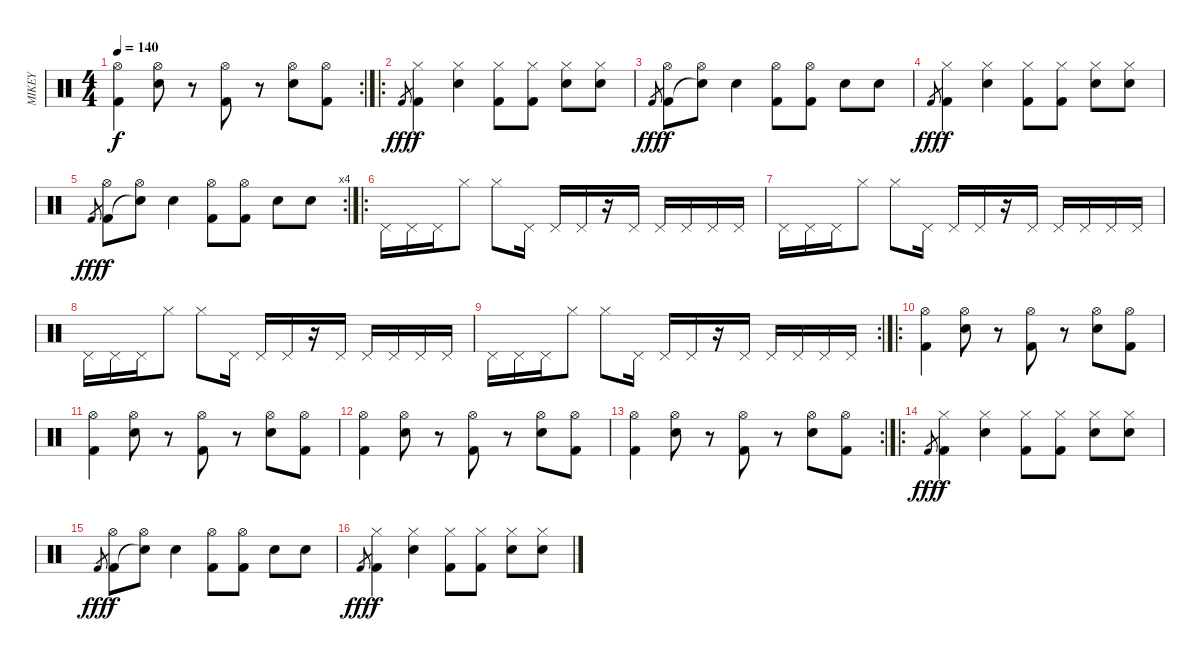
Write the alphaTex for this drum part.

\track ("MIKEY" "MIKEY") {instrument percussion}
\staff {score}
\articulation defaults
\rc 2
\ts (4 4)
\tempo 140
\clef neutral
\ks c
("Hi-Hat (open)" "Kick (hit) 2").4{dy f} ("Hi-Hat (open)" "Electric Snare (hit)").8 r.8 ("Hi-Hat (open)" "Kick (hit) 2").8 r.8 ("Hi-Hat (open)" "Electric Snare (hit)").8 ("Hi-Hat (open)" "Kick (hit) 2").8 |
\ro "Kick (hit) 2".8{gr dy fff}
("Hi-Hat (closed)" "Kick (hit) 2").4{dy f} ("Hi-Hat (closed)" "Electric Snare (hit)").4 ("Hi-Hat (closed)" "Kick (hit) 2").8 ("Hi-Hat (closed)" "Kick (hit) 2").8 ("Hi-Hat (closed)" "Electric Snare (hit)").8 ("Hi-Hat (closed)" "Electric Snare (hit)").8 |
"Kick (hit) 2".8{gr dy fff} ("Hi-Hat (open)" "Kick (hit) 2").8{dy f} ("Hi-Hat (open)" "Snare (hit)"{t}).8 "Electric Snare (hit)".4 ("Hi-Hat (open)" "Kick (hit) 2").8 ("Hi-Hat (open)" "Kick (hit) 2").8 "Electric Snare (hit)".8 "Electric Snare (hit)".8 |
"Kick (hit) 2".8{gr dy fff} ("Hi-Hat (closed)" "Kick (hit) 2").4{dy f} ("Hi-Hat (closed)" "Electric Snare (hit)").4 ("Hi-Hat (closed)" "Kick (hit) 2").8 ("Hi-Hat (closed)" "Kick (hit) 2").8 ("Hi-Hat (closed)" "Electric Snare (hit)").8 ("Hi-Hat (closed)" "Electric Snare (hit)").8 |
\rc 4 "Kick (hit) 2".8{gr dy fff}
("Hi-Hat (open)" "Kick (hit) 2").8{dy f} ("Hi-Hat (open)" "Snare (hit)"{t}).8 "Electric Snare (hit)".4 ("Hi-Hat (open)" "Kick (hit) 2").8 ("Hi-Hat (open)" "Kick (hit) 2").8 "Electric Snare (hit)".8 "Electric Snare (hit)".8 |
\ro "Pedal Hi-Hat (hit)".16 "Pedal Hi-Hat (hit)".16 "Pedal Hi-Hat (hit)".16 "Hi-Hat (closed)".8 "Hi-Hat (closed)".8 "Pedal Hi-Hat (hit)".16 "Pedal Hi-Hat (hit)".16 "Pedal Hi-Hat (hit)".16
r.16 "Pedal Hi-Hat (hit)".16 "Pedal Hi-Hat (hit)".16 "Pedal Hi-Hat (hit)".16 "Pedal Hi-Hat (hit)".16 "Pedal Hi-Hat (hit)".16 |
"Pedal Hi-Hat (hit)".16 "Pedal Hi-Hat (hit)".16 "Pedal Hi-Hat (hit)".16 "Hi-Hat (closed)".8 "Hi-Hat (closed)".8 "Pedal Hi-Hat (hit)".16 "Pedal Hi-Hat (hit)".16 "Pedal Hi-Hat (hit)".16 r.16 "Pedal Hi-Hat (hit)".16 "Pedal Hi-Hat (hit)".16 "Pedal Hi-Hat (hit)".16 "Pedal Hi-Hat (hit)".16 "Pedal Hi-Hat (hit)".16 |
"Pedal Hi-Hat (hit)".16 "Pedal Hi-Hat (hit)".16 "Pedal Hi-Hat (hit)".16 "Hi-Hat (closed)".8 "Hi-Hat (closed)".8 "Pedal Hi-Hat (hit)".16 "Pedal Hi-Hat (hit)".16 "Pedal Hi-Hat (hit)".16 r.16 "Pedal Hi-Hat (hit)".16 "Pedal Hi-Hat (hit)".16 "Pedal Hi-Hat (hit)".16 "Pedal Hi-Hat (hit)".16 "Pedal Hi-Hat (hit)".16 |
\rc 2 "Pedal Hi-Hat (hit)".16 "Pedal Hi-Hat (hit)".16 "Pedal Hi-Hat (hit)".16 "Hi-Hat (closed)".8 "Hi-Hat (closed)".8 "Pedal Hi-Hat (hit)".16 "Pedal Hi-Hat (hit)".16 "Pedal Hi-Hat (hit)".16
r.16 "Pedal Hi-Hat (hit)".16 "Pedal Hi-Hat (hit)".16 "Pedal Hi-Hat (hit)".16 "Pedal Hi-Hat (hit)".16 "Pedal Hi-Hat (hit)".16 |
\ro
("Hi-Hat (open)" "Kick (hit) 2").4 ("Hi-Hat (open)" "Electric Snare (hit)").8 r.8 ("Hi-Hat (open)" "Kick (hit) 2").8 r.8 ("Hi-Hat (open)" "Electric Snare (hit)").8 ("Hi-Hat (open)" "Kick (hit) 2").8 |
("Hi-Hat (open)" "Kick (hit) 2").4 ("Hi-Hat (open)" "Electric Snare (hit)").8 r.8 ("Hi-Hat (open)" "Kick (hit) 2").8 r.8 ("Hi-Hat (open)" "Electric Snare (hit)").8 ("Hi-Hat (open)" "Kick (hit) 2").8 |
("Hi-Hat (open)" "Kick (hit) 2").4 ("Hi-Hat (open)" "Electric Snare (hit)").8 r.8 ("Hi-Hat (open)" "Kick (hit) 2").8 r.8 ("Hi-Hat (open)" "Electric Snare (hit)").8 ("Hi-Hat (open)" "Kick (hit) 2").8 |
\rc 2
("Hi-Hat (open)" "Kick (hit) 2").4 ("Hi-Hat (open)" "Electric Snare (hit)").8 r.8 ("Hi-Hat (open)" "Kick (hit) 2").8 r.8 ("Hi-Hat (open)" "Electric Snare (hit)").8 ("Hi-Hat (open)" "Kick (hit) 2").8 |
\ro "Kick (hit) 2".8{gr dy fff}
("Hi-Hat (closed)" "Kick (hit) 2").4{dy f} ("Hi-Hat (closed)" "Electric Snare (hit)").4 ("Hi-Hat (closed)" "Kick (hit) 2").8 ("Hi-Hat (closed)" "Kick (hit) 2").8 ("Hi-Hat (closed)" "Electric Snare (hit)").8 ("Hi-Hat (closed)" "Electric Snare (hit)").8 |
"Kick (hit) 2".8{gr dy fff} ("Hi-Hat (open)" "Kick (hit) 2").8{dy f} ("Hi-Hat (open)" "Snare (hit)"{t}).8 "Electric Snare (hit)".4 ("Hi-Hat (open)" "Kick (hit) 2").8 ("Hi-Hat (open)" "Kick (hit) 2").8 "Electric Snare (hit)".8 "Electric Snare (hit)".8 |
"Kick (hit) 2".8{gr dy fff} ("Hi-Hat (closed)" "Kick (hit) 2").4{dy f} ("Hi-Hat (closed)" "Electric Snare (hit)").4 ("Hi-Hat (closed)" "Kick (hit) 2").8 ("Hi-Hat (closed)" "Kick (hit) 2").8 ("Hi-Hat (closed)" "Electric Snare (hit)").8 ("Hi-Hat (closed)" "Electric Snare (hit)").8
